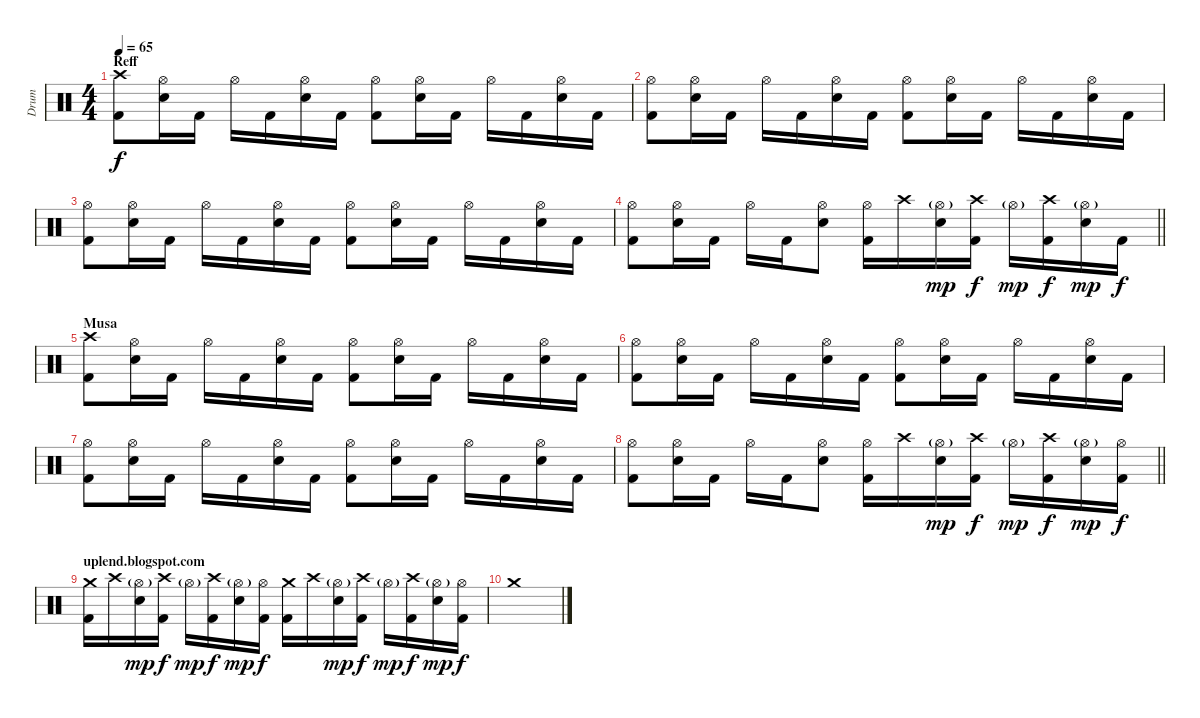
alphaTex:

\track ("Drum" "Drum") {instrument percussion}
\staff {score}
\articulation defaults
\ts (4 4)
\section ("" "Reff")
\tempo 65
\clef neutral
\ks c
("Crash high (hit)" "Kick (hit) 2").8{dy f} ("Hi-Hat (open)" "Electric Snare (hit)").16 "Kick (hit) 2".16 "Hi-Hat (open)".16 "Kick (hit) 2".16 ("Hi-Hat (open)" "Electric Snare (hit)").16 "Kick (hit) 2".16 ("Hi-Hat (open)" "Kick (hit) 2").8 ("Hi-Hat (open)" "Electric Snare (hit)").16 "Kick (hit) 2".16 "Hi-Hat (open)".16 "Kick (hit) 2".16 ("Hi-Hat (open)" "Electric Snare (hit)").16 "Kick (hit) 2".16 |
("Hi-Hat (open)" "Kick (hit) 2").8 ("Hi-Hat (open)" "Electric Snare (hit)").16 "Kick (hit) 2".16 "Hi-Hat (open)".16 "Kick (hit) 2".16 ("Hi-Hat (open)" "Electric Snare (hit)").16 "Kick (hit) 2".16 ("Hi-Hat (open)" "Kick (hit) 2").8 ("Hi-Hat (open)" "Electric Snare (hit)").16 "Kick (hit) 2".16 "Hi-Hat (open)".16 "Kick (hit) 2".16 ("Hi-Hat (open)" "Electric Snare (hit)").16 "Kick (hit) 2".16 |
("Hi-Hat (open)" "Kick (hit) 2").8 ("Hi-Hat (open)" "Electric Snare (hit)").16 "Kick (hit) 2".16 "Hi-Hat (open)".16 "Kick (hit) 2".16 ("Hi-Hat (open)" "Electric Snare (hit)").16 "Kick (hit) 2".16 ("Hi-Hat (open)" "Kick (hit) 2").8 ("Hi-Hat (open)" "Electric Snare (hit)").16 "Kick (hit) 2".16 "Hi-Hat (open)".16 "Kick (hit) 2".16 ("Hi-Hat (open)" "Electric Snare (hit)").16 "Kick (hit) 2".16 |
\barLineRight lightlight
("Hi-Hat (open)" "Kick (hit) 2").8 ("Hi-Hat (open)" "Electric Snare (hit)").16 "Kick (hit) 2".16 "Hi-Hat (open)".16 "Kick (hit) 2".16 ("Hi-Hat (open)" "Electric Snare (hit)").8 ("Hi-Hat (open)" "Kick (hit) 2").16 "Crash high (hit)".16 ("Hi-Hat (open)"{g} "Electric Snare (hit)").16{dy mp} ("Crash high (hit)" "Kick (hit) 2").16{dy f} "Hi-Hat (open)"{g}.16{dy mp} ("Crash high (hit)" "Kick (hit) 2").16{dy f} ("Hi-Hat (open)"{g} "Electric Snare (hit)").16{dy mp} "Kick (hit) 2".16{dy f} |
\section ("" "Musa")
("Crash high (hit)" "Kick (hit) 2").8 ("Hi-Hat (open)" "Electric Snare (hit)").16 "Kick (hit) 2".16 "Hi-Hat (open)".16 "Kick (hit) 2".16 ("Hi-Hat (open)" "Electric Snare (hit)").16 "Kick (hit) 2".16 ("Hi-Hat (open)" "Kick (hit) 2").8 ("Hi-Hat (open)" "Electric Snare (hit)").16 "Kick (hit) 2".16 "Hi-Hat (open)".16 "Kick (hit) 2".16 ("Hi-Hat (open)" "Electric Snare (hit)").16 "Kick (hit) 2".16 |
("Hi-Hat (open)" "Kick (hit) 2").8 ("Hi-Hat (open)" "Electric Snare (hit)").16 "Kick (hit) 2".16 "Hi-Hat (open)".16 "Kick (hit) 2".16 ("Hi-Hat (open)" "Electric Snare (hit)").16 "Kick (hit) 2".16 ("Hi-Hat (open)" "Kick (hit) 2").8 ("Hi-Hat (open)" "Electric Snare (hit)").16 "Kick (hit) 2".16 "Hi-Hat (open)".16 "Kick (hit) 2".16 ("Hi-Hat (open)" "Electric Snare (hit)").16 "Kick (hit) 2".16 |
("Hi-Hat (open)" "Kick (hit) 2").8 ("Hi-Hat (open)" "Electric Snare (hit)").16 "Kick (hit) 2".16 "Hi-Hat (open)".16 "Kick (hit) 2".16 ("Hi-Hat (open)" "Electric Snare (hit)").16 "Kick (hit) 2".16 ("Hi-Hat (open)" "Kick (hit) 2").8 ("Hi-Hat (open)" "Electric Snare (hit)").16 "Kick (hit) 2".16 "Hi-Hat (open)".16 "Kick (hit) 2".16 ("Hi-Hat (open)" "Electric Snare (hit)").16 "Kick (hit) 2".16 |
\barLineRight lightlight
("Hi-Hat (open)" "Kick (hit) 2").8 ("Hi-Hat (open)" "Electric Snare (hit)").16 "Kick (hit) 2".16 "Hi-Hat (open)".16 "Kick (hit) 2".16 ("Hi-Hat (open)" "Electric Snare (hit)").8 ("Hi-Hat (open)" "Kick (hit) 2").16 "Crash high (hit)".16 ("Hi-Hat (open)"{g} "Electric Snare (hit)").16{dy mp} ("Crash high (hit)" "Kick (hit) 2").16{dy f} "Hi-Hat (open)"{g}.16{dy mp} ("Crash high (hit)" "Kick (hit) 2").16{dy f} ("Hi-Hat (open)"{g} "Electric Snare (hit)").16{dy mp} ("Hi-Hat (open)" "Kick (hit) 2").16{dy f} |
\section ("" "uplend.blogspot.com")
("Crash medium (hit)" "Kick (hit) 2").16 "Crash high (hit)".16 ("Hi-Hat (open)"{g} "Electric Snare (hit)").16{dy mp} ("Crash high (hit)" "Kick (hit) 2").16{dy f} "Hi-Hat (open)"{g}.16{dy mp} ("Crash high (hit)" "Kick (hit) 2").16{dy f} ("Hi-Hat (open)"{g} "Electric Snare (hit)").16{dy mp} ("Hi-Hat (open)" "Kick (hit) 2").16{dy f} ("Crash medium (hit)" "Kick (hit) 2").16 "Crash high (hit)".16 ("Hi-Hat (open)"{g} "Electric Snare (hit)").16{dy mp} ("Crash high (hit)" "Kick (hit) 2").16{dy f} "Hi-Hat (open)"{g}.16{dy mp} ("Crash high (hit)" "Kick (hit) 2").16{dy f} ("Hi-Hat (open)"{g} "Electric Snare (hit)").16{dy mp} ("Hi-Hat (open)" "Kick (hit) 2").16{dy f} |
"Crash medium (hit)".1
